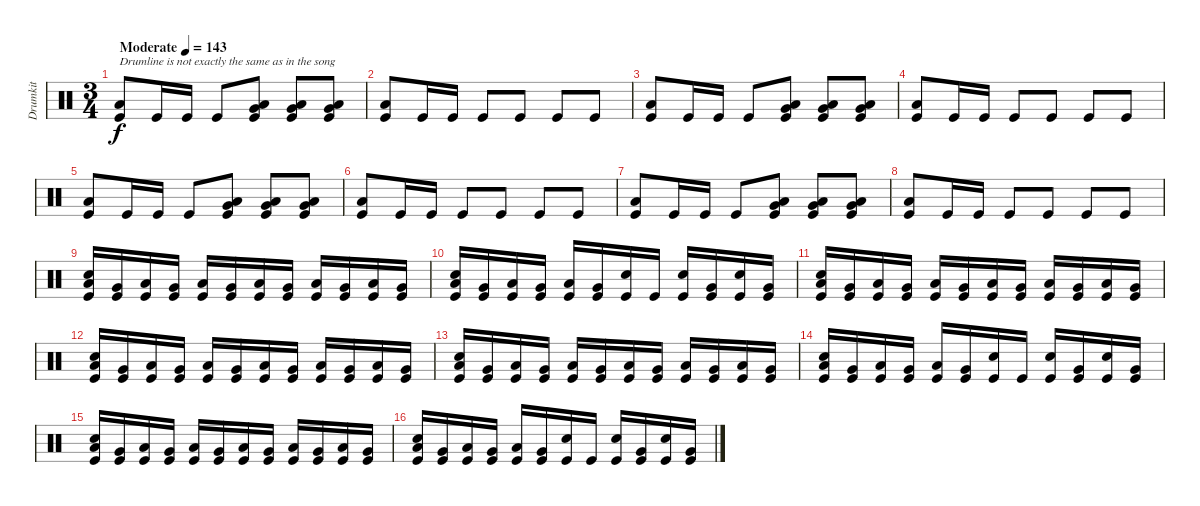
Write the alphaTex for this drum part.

\track ("Drumkit" "Drumkit") {instrument percussion}
\staff {score}
\articulation defaults
\ts (3 4)
\tempo (143 "Moderate")
\clef neutral
\ks c
("Kick (hit)" "Low Tom (hit)").8{txt "Drumline is not exactly the same as in the song" dy f} "Kick (hit)".16 "Kick (hit)".16 "Kick (hit)".8 ("Kick (hit)" "Low Tom (hit)" "Very Low Tom (hit)").8 ("Kick (hit)" "Low Tom (hit)" "Very Low Tom (hit)").8 ("Kick (hit)" "Low Tom (hit)" "Very Low Tom (hit)").8 |
("Kick (hit)" "Low Tom (hit)").8 "Kick (hit)".16 "Kick (hit)".16 "Kick (hit)".8 "Kick (hit)".8 "Kick (hit)".8 "Kick (hit)".8 |
("Kick (hit)" "Low Tom (hit)").8 "Kick (hit)".16 "Kick (hit)".16 "Kick (hit)".8 ("Kick (hit)" "Low Tom (hit)" "Very Low Tom (hit)").8 ("Kick (hit)" "Low Tom (hit)" "Very Low Tom (hit)").8 ("Kick (hit)" "Low Tom (hit)" "Very Low Tom (hit)").8 |
("Kick (hit)" "Low Tom (hit)").8 "Kick (hit)".16 "Kick (hit)".16 "Kick (hit)".8 "Kick (hit)".8 "Kick (hit)".8 "Kick (hit)".8 |
("Kick (hit)" "Low Tom (hit)").8 "Kick (hit)".16 "Kick (hit)".16 "Kick (hit)".8 ("Kick (hit)" "Low Tom (hit)" "Very Low Tom (hit)").8 ("Kick (hit)" "Low Tom (hit)" "Very Low Tom (hit)").8 ("Kick (hit)" "Low Tom (hit)" "Very Low Tom (hit)").8 |
("Kick (hit)" "Low Tom (hit)").8 "Kick (hit)".16 "Kick (hit)".16 "Kick (hit)".8 "Kick (hit)".8 "Kick (hit)".8 "Kick (hit)".8 |
("Kick (hit)" "Low Tom (hit)").8 "Kick (hit)".16 "Kick (hit)".16 "Kick (hit)".8 ("Kick (hit)" "Low Tom (hit)" "Very Low Tom (hit)").8 ("Kick (hit)" "Low Tom (hit)" "Very Low Tom (hit)").8 ("Kick (hit)" "Low Tom (hit)" "Very Low Tom (hit)").8 |
("Kick (hit)" "Low Tom (hit)").8 "Kick (hit)".16 "Kick (hit)".16 "Kick (hit)".8 "Kick (hit)".8 "Kick (hit)".8 "Kick (hit)".8 |
("Kick (hit)" "Low Tom (hit)" "Snare (hit) 2").16 ("Kick (hit)" "Very Low Tom (hit)").16 ("Kick (hit)" "Low Tom (hit)").16 ("Kick (hit)" "Very Low Tom (hit)").16 ("Kick (hit)" "Low Tom (hit)").16 ("Kick (hit)" "Very Low Tom (hit)").16 ("Kick (hit)" "Low Tom (hit)").16 ("Kick (hit)" "Very Low Tom (hit)").16 ("Kick (hit)" "Low Tom (hit)").16 ("Kick (hit)" "Very Low Tom (hit)").16 ("Kick (hit)" "Low Tom (hit)").16 ("Kick (hit)" "Very Low Tom (hit)").16 |
("Kick (hit)" "Low Tom (hit)" "Snare (hit) 2").16 ("Kick (hit)" "Very Low Tom (hit)").16 ("Kick (hit)" "Low Tom (hit)").16 ("Kick (hit)" "Very Low Tom (hit)").16 ("Kick (hit)" "Low Tom (hit)").16 ("Kick (hit)" "Very Low Tom (hit)").16 ("Kick (hit)" "Snare (hit) 2").16 "Kick (hit)".16 ("Kick (hit)" "Snare (hit) 2").16 ("Kick (hit)" "Very Low Tom (hit)").16 ("Kick (hit)" "Snare (hit) 2").16 ("Kick (hit)" "Very Low Tom (hit)").16 |
("Kick (hit)" "Low Tom (hit)" "Snare (hit) 2").16 ("Kick (hit)" "Very Low Tom (hit)").16 ("Kick (hit)" "Low Tom (hit)").16 ("Kick (hit)" "Very Low Tom (hit)").16 ("Kick (hit)" "Low Tom (hit)").16 ("Kick (hit)" "Very Low Tom (hit)").16 ("Kick (hit)" "Low Tom (hit)").16 ("Kick (hit)" "Very Low Tom (hit)").16 ("Kick (hit)" "Low Tom (hit)").16 ("Kick (hit)" "Very Low Tom (hit)").16 ("Kick (hit)" "Low Tom (hit)").16 ("Kick (hit)" "Very Low Tom (hit)").16 |
("Kick (hit)" "Low Tom (hit)" "Snare (hit) 2").16 ("Kick (hit)" "Very Low Tom (hit)").16 ("Kick (hit)" "Low Tom (hit)").16 ("Kick (hit)" "Very Low Tom (hit)").16 ("Kick (hit)" "Low Tom (hit)").16 ("Kick (hit)" "Very Low Tom (hit)").16 ("Kick (hit)" "Low Tom (hit)").16 ("Kick (hit)" "Very Low Tom (hit)").16 ("Kick (hit)" "Low Tom (hit)").16 ("Kick (hit)" "Very Low Tom (hit)").16 ("Kick (hit)" "Low Tom (hit)").16 ("Kick (hit)" "Very Low Tom (hit)").16 |
("Kick (hit)" "Low Tom (hit)" "Snare (hit) 2").16 ("Kick (hit)" "Very Low Tom (hit)").16 ("Kick (hit)" "Low Tom (hit)").16 ("Kick (hit)" "Very Low Tom (hit)").16 ("Kick (hit)" "Low Tom (hit)").16 ("Kick (hit)" "Very Low Tom (hit)").16 ("Kick (hit)" "Low Tom (hit)").16 ("Kick (hit)" "Very Low Tom (hit)").16 ("Kick (hit)" "Low Tom (hit)").16 ("Kick (hit)" "Very Low Tom (hit)").16 ("Kick (hit)" "Low Tom (hit)").16 ("Kick (hit)" "Very Low Tom (hit)").16 |
("Kick (hit)" "Low Tom (hit)" "Snare (hit) 2").16 ("Kick (hit)" "Very Low Tom (hit)").16 ("Kick (hit)" "Low Tom (hit)").16 ("Kick (hit)" "Very Low Tom (hit)").16 ("Kick (hit)" "Low Tom (hit)").16 ("Kick (hit)" "Very Low Tom (hit)").16 ("Kick (hit)" "Snare (hit) 2").16 "Kick (hit)".16 ("Kick (hit)" "Snare (hit) 2").16 ("Kick (hit)" "Very Low Tom (hit)").16 ("Kick (hit)" "Snare (hit) 2").16 ("Kick (hit)" "Very Low Tom (hit)").16 |
("Kick (hit)" "Low Tom (hit)" "Snare (hit) 2").16 ("Kick (hit)" "Very Low Tom (hit)").16 ("Kick (hit)" "Low Tom (hit)").16 ("Kick (hit)" "Very Low Tom (hit)").16 ("Kick (hit)" "Low Tom (hit)").16 ("Kick (hit)" "Very Low Tom (hit)").16 ("Kick (hit)" "Low Tom (hit)").16 ("Kick (hit)" "Very Low Tom (hit)").16 ("Kick (hit)" "Low Tom (hit)").16 ("Kick (hit)" "Very Low Tom (hit)").16 ("Kick (hit)" "Low Tom (hit)").16 ("Kick (hit)" "Very Low Tom (hit)").16 |
("Kick (hit)" "Low Tom (hit)" "Snare (hit) 2").16 ("Kick (hit)" "Very Low Tom (hit)").16 ("Kick (hit)" "Low Tom (hit)").16 ("Kick (hit)" "Very Low Tom (hit)").16 ("Kick (hit)" "Low Tom (hit)").16 ("Kick (hit)" "Very Low Tom (hit)").16 ("Kick (hit)" "Snare (hit) 2").16 "Kick (hit)".16 ("Kick (hit)" "Snare (hit) 2").16 ("Kick (hit)" "Very Low Tom (hit)").16 ("Kick (hit)" "Snare (hit) 2").16 ("Kick (hit)" "Very Low Tom (hit)").16
